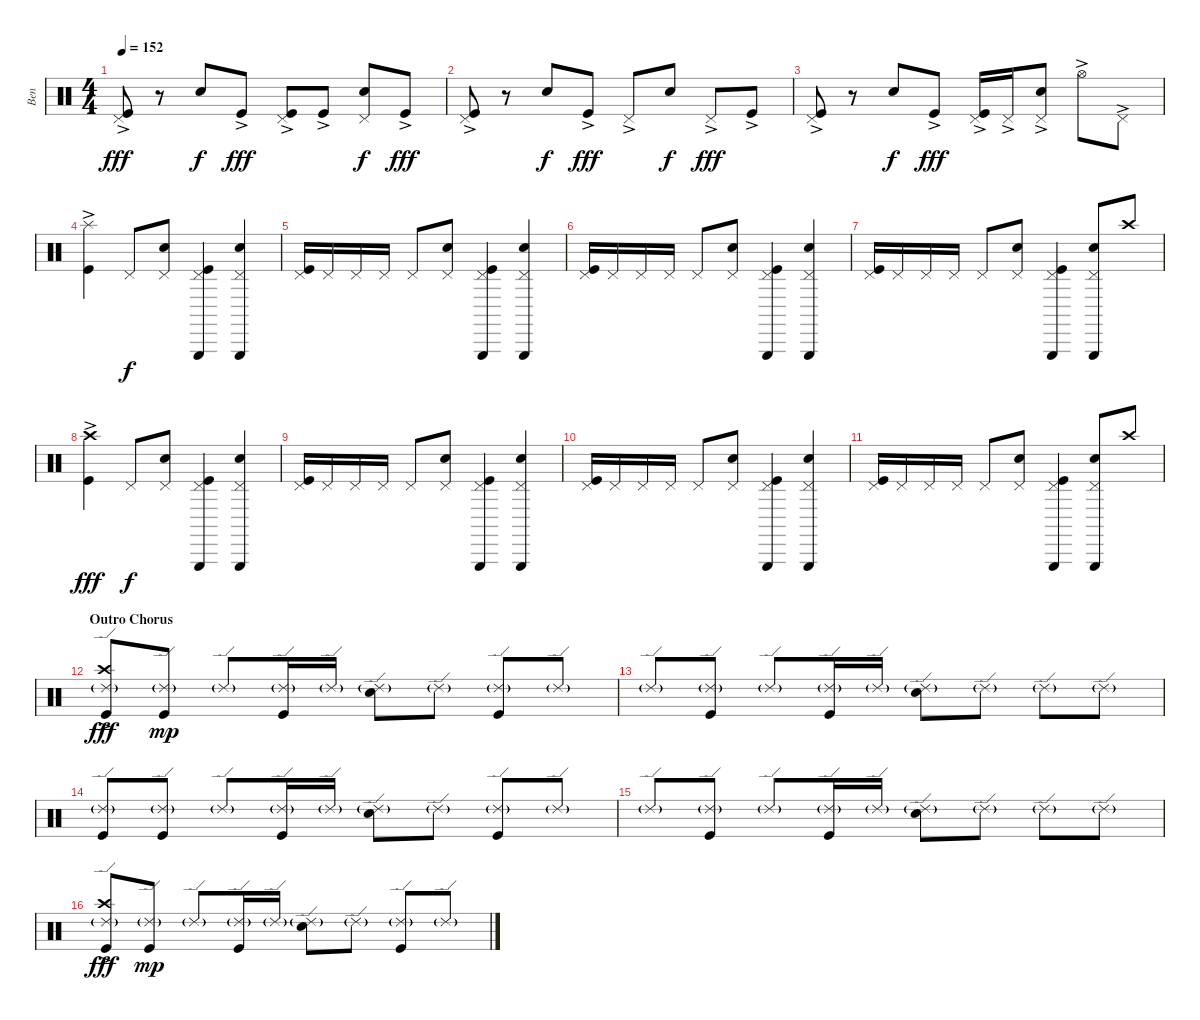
\track ("Ben" "Ben") {instrument percussion}
\staff {score}
\articulation defaults
\ts (4 4)
\tempo 152
\clef neutral
\ks c
("Pedal Hi-Hat (hit)" "Kick (hit)"{ac}).8{dy fff} r.8 "Electric Snare (hit)".8{dy f} "Kick (hit)"{ac}.8{dy fff} ("Pedal Hi-Hat (hit)" "Kick (hit)"{ac}).8 "Kick (hit)"{ac}.8 ("Pedal Hi-Hat (hit)" "Electric Snare (hit)").8{dy f} "Kick (hit)"{ac}.8{dy fff} |
("Pedal Hi-Hat (hit)"{ac} "Kick (hit)"{ac}).8 r.8 "Electric Snare (hit)".8{dy f} "Kick (hit)"{ac}.8{dy fff} "Pedal Hi-Hat (hit)"{ac}.8 "Electric Snare (hit)".8{dy f} "Pedal Hi-Hat (hit)"{ac}.8{dy fff} "Kick (hit)"{ac}.8 |
("Pedal Hi-Hat (hit)"{ac} "Kick (hit)"{ac}).8 r.8 "Electric Snare (hit)".8{dy f} "Kick (hit)"{ac}.8{dy fff} ("Pedal Hi-Hat (hit)"{ac} "Kick (hit)"{ac}).16 "Pedal Hi-Hat (hit)"{ac}.16 ("Pedal Hi-Hat (hit)"{ac} "Electric Snare (hit)").8 "Hi-Hat (open)"{ac}.8 "Pedal Hi-Hat (hit)"{ac}.8 |
("Splash (hit)"{ac} "Kick (hit)").4 "Pedal Hi-Hat (hit)".8{dy f} ("Pedal Hi-Hat (hit)" "Electric Snare (hit)").8 ("Pedal Hi-Hat (hit)" "Triangle (hit)" "Kick (hit)").4 ("Pedal Hi-Hat (hit)" "Triangle (hit)" "Electric Snare (hit)").4 |
("Pedal Hi-Hat (hit)" "Kick (hit)").16 "Pedal Hi-Hat (hit)".16 "Pedal Hi-Hat (hit)".16 "Pedal Hi-Hat (hit)".16 "Pedal Hi-Hat (hit)".8 ("Pedal Hi-Hat (hit)" "Electric Snare (hit)").8 ("Pedal Hi-Hat (hit)" "Triangle (hit)" "Kick (hit)").4 ("Pedal Hi-Hat (hit)" "Triangle (hit)" "Electric Snare (hit)").4 |
("Pedal Hi-Hat (hit)" "Kick (hit)").16 "Pedal Hi-Hat (hit)".16 "Pedal Hi-Hat (hit)".16 "Pedal Hi-Hat (hit)".16 "Pedal Hi-Hat (hit)".8 ("Pedal Hi-Hat (hit)" "Electric Snare (hit)").8 ("Pedal Hi-Hat (hit)" "Triangle (hit)" "Kick (hit)").4 ("Pedal Hi-Hat (hit)" "Triangle (hit)" "Electric Snare (hit)").4 |
("Pedal Hi-Hat (hit)" "Kick (hit)").16 "Pedal Hi-Hat (hit)".16 "Pedal Hi-Hat (hit)".16 "Pedal Hi-Hat (hit)".16 "Pedal Hi-Hat (hit)".8 ("Pedal Hi-Hat (hit)" "Electric Snare (hit)").8 ("Pedal Hi-Hat (hit)" "Triangle (hit)" "Kick (hit)").4 ("Pedal Hi-Hat (hit)" "Triangle (hit)" "Electric Snare (hit)").8 "Crash high (hit)".8 |
("Crash high (hit)"{ac} "Kick (hit)").4{dy fff} "Pedal Hi-Hat (hit)".8{dy f} ("Pedal Hi-Hat (hit)" "Electric Snare (hit)").8 ("Pedal Hi-Hat (hit)" "Triangle (hit)" "Kick (hit)").4 ("Pedal Hi-Hat (hit)" "Triangle (hit)" "Electric Snare (hit)").4 |
("Pedal Hi-Hat (hit)" "Kick (hit)").16 "Pedal Hi-Hat (hit)".16 "Pedal Hi-Hat (hit)".16 "Pedal Hi-Hat (hit)".16 "Pedal Hi-Hat (hit)".8 ("Pedal Hi-Hat (hit)" "Electric Snare (hit)").8 ("Pedal Hi-Hat (hit)" "Triangle (hit)" "Kick (hit)").4 ("Pedal Hi-Hat (hit)" "Triangle (hit)" "Electric Snare (hit)").4 |
("Pedal Hi-Hat (hit)" "Kick (hit)").16 "Pedal Hi-Hat (hit)".16 "Pedal Hi-Hat (hit)".16 "Pedal Hi-Hat (hit)".16 "Pedal Hi-Hat (hit)".8 ("Pedal Hi-Hat (hit)" "Electric Snare (hit)").8 ("Pedal Hi-Hat (hit)" "Triangle (hit)" "Kick (hit)").4 ("Pedal Hi-Hat (hit)" "Triangle (hit)" "Electric Snare (hit)").4 |
("Pedal Hi-Hat (hit)" "Kick (hit)").16 "Pedal Hi-Hat (hit)".16 "Pedal Hi-Hat (hit)".16 "Pedal Hi-Hat (hit)".16 "Pedal Hi-Hat (hit)".8 ("Pedal Hi-Hat (hit)" "Electric Snare (hit)").8 ("Pedal Hi-Hat (hit)" "Triangle (hit)" "Kick (hit)").4 ("Pedal Hi-Hat (hit)" "Triangle (hit)" "Electric Snare (hit)").8 "Crash high (hit)".8 |
\section ("" "Outro Chorus")
("Ride (edge) 2"{g} "Crash high (hit)"{ac} "Kick (hit)").8{dy fff} ("Ride (edge) 2"{g} "Kick (hit)").8{dy mp} "Ride (edge) 2"{g}.8 ("Ride (edge) 2"{g} "Kick (hit)").16 "Ride (edge) 2"{g}.16 ("Ride (edge) 2"{g} "Electric Snare (hit)").8 "Ride (edge) 2"{g}.8 ("Ride (edge) 2"{g} "Kick (hit)").8 "Ride (edge) 2"{g}.8 |
"Ride (edge) 2"{g}.8 ("Ride (edge) 2"{g} "Kick (hit)").8 "Ride (edge) 2"{g}.8 ("Ride (edge) 2"{g} "Kick (hit)").16 "Ride (edge) 2"{g}.16 ("Ride (edge) 2"{g} "Electric Snare (hit)").8 "Ride (edge) 2"{g}.8 "Ride (edge) 2"{g}.8 "Ride (edge) 2"{g}.8 |
("Ride (edge) 2"{g} "Kick (hit)").8 ("Ride (edge) 2"{g} "Kick (hit)").8 "Ride (edge) 2"{g}.8 ("Ride (edge) 2"{g} "Kick (hit)").16 "Ride (edge) 2"{g}.16 ("Ride (edge) 2"{g} "Electric Snare (hit)").8 "Ride (edge) 2"{g}.8 ("Ride (edge) 2"{g} "Kick (hit)").8 "Ride (edge) 2"{g}.8 |
"Ride (edge) 2"{g}.8 ("Ride (edge) 2"{g} "Kick (hit)").8 "Ride (edge) 2"{g}.8 ("Ride (edge) 2"{g} "Kick (hit)").16 "Ride (edge) 2"{g}.16 ("Ride (edge) 2"{g} "Electric Snare (hit)").8 "Ride (edge) 2"{g}.8 "Ride (edge) 2"{g}.8 "Ride (edge) 2"{g}.8 |
("Ride (edge) 2"{g} "Crash high (hit)"{ac} "Kick (hit)").8{dy fff} ("Ride (edge) 2"{g} "Kick (hit)").8{dy mp} "Ride (edge) 2"{g}.8 ("Ride (edge) 2"{g} "Kick (hit)").16 "Ride (edge) 2"{g}.16 ("Ride (edge) 2"{g} "Electric Snare (hit)").8 "Ride (edge) 2"{g}.8 ("Ride (edge) 2"{g} "Kick (hit)").8 "Ride (edge) 2"{g}.8
